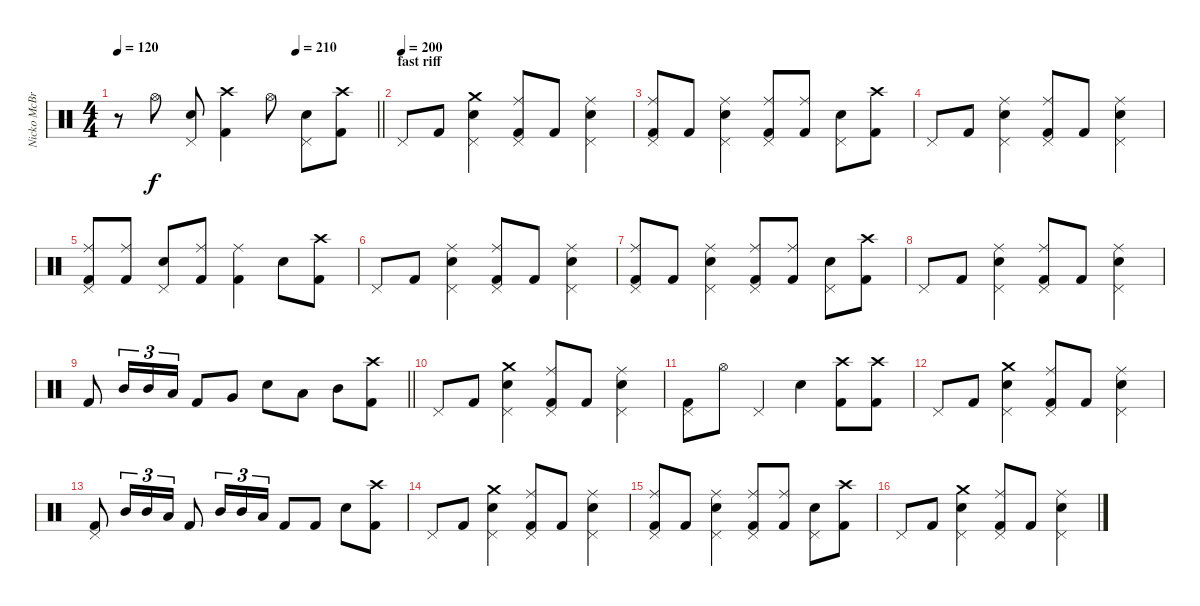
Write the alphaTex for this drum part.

\track ("Nicko McBrain" "Nicko McBr") {instrument percussion}
\staff {score}
\articulation defaults
\ts (4 4)
\tempo (210 0.6875)
\tempo 120
\clef neutral
\barLineRight lightlight
\ks c
r.8{dy f} "Hi-Hat (open)".8 ("Snare (hit) 2" "Pedal Hi-Hat (hit)").8 ("Crash high (hit)" "Kick (hit) 2").4 "Hi-Hat (open)".8 ("Snare (hit) 2" "Pedal Hi-Hat (hit)").8 ("Crash high (hit)" "Kick (hit) 2").8 |
\section ("" "fast riff")
\tempo 220
\tempo (200)
"Pedal Hi-Hat (hit)".8 "Kick (hit) 2".8 ("Crash medium (hit)" "Snare (hit) 2" "Pedal Hi-Hat (hit)").4 ("Ride (middle)" "Pedal Hi-Hat (hit)" "Kick (hit) 2").8 "Kick (hit) 2".8 ("Ride (middle)" "Snare (hit) 2" "Pedal Hi-Hat (hit)").4 |
("Ride (middle)" "Pedal Hi-Hat (hit)" "Kick (hit) 2").8 "Kick (hit) 2".8 ("Ride (middle)" "Snare (hit) 2" "Pedal Hi-Hat (hit)").4 ("Ride (middle)" "Pedal Hi-Hat (hit)" "Kick (hit) 2").8 ("Ride (middle)" "Kick (hit) 2").8 ("Snare (hit) 2" "Pedal Hi-Hat (hit)").8 ("Crash high (hit)" "Kick (hit) 2").8 |
"Pedal Hi-Hat (hit)".8 "Kick (hit) 2".8 ("Ride (middle)" "Snare (hit) 2" "Pedal Hi-Hat (hit)").4 ("Ride (middle)" "Pedal Hi-Hat (hit)" "Kick (hit) 2").8 "Kick (hit) 2".8 ("Ride (middle)" "Snare (hit) 2" "Pedal Hi-Hat (hit)").4 |
("Ride (middle)" "Pedal Hi-Hat (hit)" "Kick (hit) 2").8 ("Ride (middle)" "Kick (hit) 2").8 ("Snare (hit) 2" "Pedal Hi-Hat (hit)").8 ("Ride (middle)" "Kick (hit) 2").8 ("Ride (middle)" "Kick (hit) 2").4 "Snare (hit) 2".8 ("Crash high (hit)" "Kick (hit) 2").8 |
"Pedal Hi-Hat (hit)".8 "Kick (hit) 2".8 ("Ride (middle)" "Snare (hit) 2" "Pedal Hi-Hat (hit)").4 ("Ride (middle)" "Pedal Hi-Hat (hit)" "Kick (hit) 2").8 "Kick (hit) 2".8 ("Ride (middle)" "Snare (hit) 2" "Pedal Hi-Hat (hit)").4 |
("Ride (middle)" "Pedal Hi-Hat (hit)" "Kick (hit) 2").8 "Kick (hit) 2".8 ("Ride (middle)" "Snare (hit) 2" "Pedal Hi-Hat (hit)").4 ("Ride (middle)" "Pedal Hi-Hat (hit)" "Kick (hit) 2").8 ("Ride (middle)" "Kick (hit) 2").8 ("Snare (hit) 2" "Pedal Hi-Hat (hit)").8 ("Crash high (hit)" "Kick (hit) 2").8 |
"Pedal Hi-Hat (hit)".8 "Kick (hit) 2".8 ("Ride (middle)" "Snare (hit) 2" "Pedal Hi-Hat (hit)").4 ("Ride (middle)" "Pedal Hi-Hat (hit)" "Kick (hit) 2").8 "Kick (hit) 2".8 ("Ride (middle)" "Snare (hit) 2" "Pedal Hi-Hat (hit)").4 |
\barLineRight lightlight "Kick (hit) 2".8 "Mid Tom (hit)".16{tu (3 2)} "Mid Tom (hit)".16{tu (3 2)} "Low Tom (hit)".16{tu (3 2)} "Kick (hit) 2".8 "Very Low Tom (hit)".8 "Snare (hit) 2".8 "Low Floor Tom (hit)".8 "Mid Tom (hit)".8
("Crash high (hit)" "Kick (hit) 2").8 |
"Pedal Hi-Hat (hit)".8 "Kick (hit) 2".8 ("Crash medium (hit)" "Snare (hit) 2" "Pedal Hi-Hat (hit)").4 ("Ride (middle)" "Pedal Hi-Hat (hit)" "Kick (hit) 2").8 "Kick (hit) 2".8 ("Ride (middle)" "Snare (hit) 2" "Pedal Hi-Hat (hit)").4 |
("Pedal Hi-Hat (hit)" "Kick (hit) 2").8 "Hi-Hat (open)".8 "Pedal Hi-Hat (hit)".4 "Snare (hit) 2".4 ("Crash high (hit)" "Kick (hit) 2").8 ("Crash high (hit)" "Kick (hit) 2").8 |
"Pedal Hi-Hat (hit)".8 "Kick (hit) 2".8 ("Crash medium (hit)" "Snare (hit) 2" "Pedal Hi-Hat (hit)").4 ("Ride (middle)" "Pedal Hi-Hat (hit)" "Kick (hit) 2").8 "Kick (hit) 2".8 ("Ride (middle)" "Snare (hit) 2" "Pedal Hi-Hat (hit)").4 |
("Pedal Hi-Hat (hit)" "Kick (hit) 2").8 "Mid Tom (hit)".16{tu (3 2)} "Mid Tom (hit)".16{tu (3 2)} "Low Tom (hit)".16{tu (3 2)} "Kick (hit) 2".8 "Mid Tom (hit)".16{tu (3 2)} "Mid Tom (hit)".16{tu (3 2)} "Low Tom (hit)".16{tu (3 2)} "Kick (hit) 2".8 "Kick (hit) 2".8 "Snare (hit) 2".8 ("Crash high (hit)" "Kick (hit) 2").8 |
"Pedal Hi-Hat (hit)".8 "Kick (hit) 2".8 ("Crash medium (hit)" "Snare (hit) 2" "Pedal Hi-Hat (hit)").4 ("Ride (middle)" "Pedal Hi-Hat (hit)" "Kick (hit) 2").8 "Kick (hit) 2".8 ("Ride (middle)" "Snare (hit) 2" "Pedal Hi-Hat (hit)").4 |
("Ride (middle)" "Pedal Hi-Hat (hit)" "Kick (hit) 2").8 "Kick (hit) 2".8 ("Ride (middle)" "Snare (hit) 2" "Pedal Hi-Hat (hit)").4 ("Ride (middle)" "Pedal Hi-Hat (hit)" "Kick (hit) 2").8 ("Ride (middle)" "Kick (hit) 2").8 ("Snare (hit) 2" "Pedal Hi-Hat (hit)").8 ("Crash high (hit)" "Kick (hit) 2").8 |
"Pedal Hi-Hat (hit)".8 "Kick (hit) 2".8 ("Crash medium (hit)" "Snare (hit) 2" "Pedal Hi-Hat (hit)").4 ("Ride (middle)" "Pedal Hi-Hat (hit)" "Kick (hit) 2").8 "Kick (hit) 2".8 ("Ride (middle)" "Snare (hit) 2" "Pedal Hi-Hat (hit)").4
